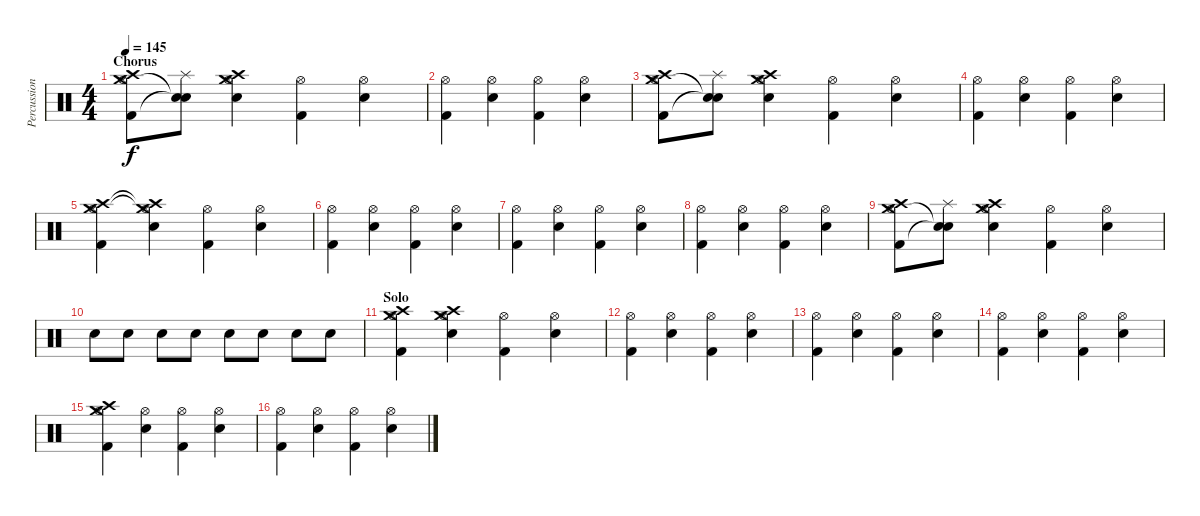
\track ("Percussions" "Percussion") {instrument percussion}
\staff {score}
\articulation defaults
\ts (4 4)
\section ("" "Chorus")
\tempo 145
\clef neutral
\ks c
("Kick (hit) 2" "Hi-Hat (open)" "Crash medium (hit)" "Crash high (hit)").8{dy f} ("Snare (hit)"{t} "Snare (hit)"{t} "Splash (hit)").8 ("Snare (hit) 2" "Hi-Hat (open)" "Crash medium (hit)" "Crash high (hit)").4 ("Kick (hit) 2" "Hi-Hat (open)").4 ("Snare (hit) 2" "Hi-Hat (open)").4 |
("Kick (hit) 2" "Hi-Hat (open)").4 ("Snare (hit) 2" "Hi-Hat (open)").4 ("Kick (hit) 2" "Hi-Hat (open)").4 ("Snare (hit) 2" "Hi-Hat (open)").4 |
("Kick (hit) 2" "Hi-Hat (open)" "Crash medium (hit)" "Crash high (hit)").8 ("Snare (hit)"{t} "Snare (hit)"{t} "Splash (hit)").8 ("Snare (hit) 2" "Hi-Hat (open)" "Crash medium (hit)" "Crash high (hit)").4 ("Kick (hit) 2" "Hi-Hat (open)").4 ("Snare (hit) 2" "Hi-Hat (open)").4 |
("Kick (hit) 2" "Hi-Hat (open)").4 ("Snare (hit) 2" "Hi-Hat (open)").4 ("Kick (hit) 2" "Hi-Hat (open)").4 ("Snare (hit) 2" "Hi-Hat (open)").4 |
("Kick (hit) 2" "Hi-Hat (open)" "Crash medium (hit)" "Crash high (hit)").4 ("Snare (hit) 2" "Hi-Hat (open)" "Crash medium (hit)"{t} "Crash high (hit)"{t}).4 ("Kick (hit) 2" "Hi-Hat (open)").4 ("Snare (hit) 2" "Hi-Hat (open)").4 |
("Kick (hit) 2" "Hi-Hat (open)").4 ("Snare (hit) 2" "Hi-Hat (open)").4 ("Kick (hit) 2" "Hi-Hat (open)").4 ("Snare (hit) 2" "Hi-Hat (open)").4 |
("Kick (hit) 2" "Hi-Hat (open)").4 ("Snare (hit) 2" "Hi-Hat (open)").4 ("Kick (hit) 2" "Hi-Hat (open)").4 ("Snare (hit) 2" "Hi-Hat (open)").4 |
("Kick (hit) 2" "Hi-Hat (open)").4 ("Snare (hit) 2" "Hi-Hat (open)").4 ("Kick (hit) 2" "Hi-Hat (open)").4 ("Snare (hit) 2" "Hi-Hat (open)").4 |
("Kick (hit) 2" "Hi-Hat (open)" "Crash medium (hit)" "Crash high (hit)").8 ("Snare (hit)"{t} "Snare (hit)"{t} "Splash (hit)").8 ("Snare (hit) 2" "Hi-Hat (open)" "Crash medium (hit)" "Crash high (hit)").4 ("Kick (hit) 2" "Hi-Hat (open)").4 ("Snare (hit) 2" "Hi-Hat (open)").4 |
"Snare (hit) 2".8 "Snare (hit) 2".8 "Snare (hit) 2".8 "Snare (hit) 2".8 "Snare (hit) 2".8 "Snare (hit) 2".8 "Snare (hit) 2".8 "Snare (hit) 2".8 |
\section ("" "Solo")
("Kick (hit) 2" "Hi-Hat (open)" "Crash medium (hit)" "Crash high (hit)").4 ("Snare (hit) 2" "Hi-Hat (open)" "Crash medium (hit)" "Crash high (hit)").4 ("Kick (hit) 2" "Hi-Hat (open)").4 ("Snare (hit) 2" "Hi-Hat (open)").4 |
("Kick (hit) 2" "Hi-Hat (open)").4 ("Snare (hit) 2" "Hi-Hat (open)").4 ("Kick (hit) 2" "Hi-Hat (open)").4 ("Snare (hit) 2" "Hi-Hat (open)").4 |
("Kick (hit) 2" "Hi-Hat (open)").4 ("Snare (hit) 2" "Hi-Hat (open)").4 ("Kick (hit) 2" "Hi-Hat (open)").4 ("Snare (hit) 2" "Hi-Hat (open)").4 |
("Kick (hit) 2" "Hi-Hat (open)").4 ("Snare (hit) 2" "Hi-Hat (open)").4 ("Kick (hit) 2" "Hi-Hat (open)").4 ("Snare (hit) 2" "Hi-Hat (open)").4 |
("Kick (hit) 2" "Hi-Hat (open)" "Crash medium (hit)" "Crash high (hit)").4 ("Snare (hit) 2" "Hi-Hat (open)").4 ("Kick (hit) 2" "Hi-Hat (open)").4 ("Snare (hit) 2" "Hi-Hat (open)").4 |
("Kick (hit) 2" "Hi-Hat (open)").4 ("Snare (hit) 2" "Hi-Hat (open)").4 ("Kick (hit) 2" "Hi-Hat (open)").4 ("Snare (hit) 2" "Hi-Hat (open)").4
